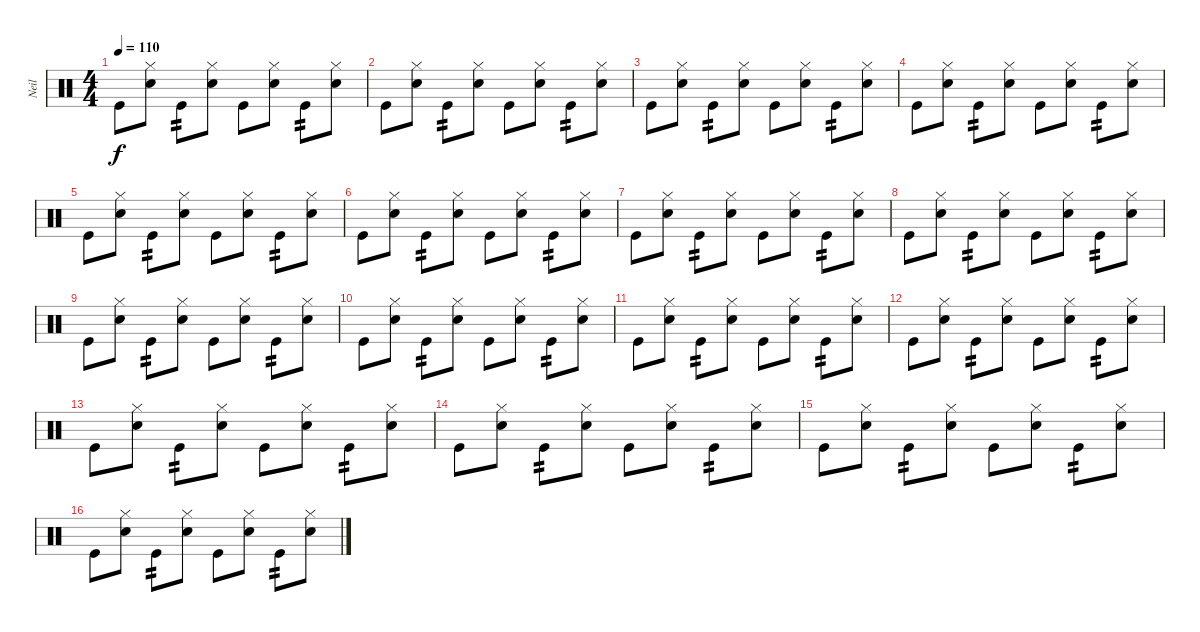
\track ("Neil" "Neil") {instrument percussion}
\staff {score}
\articulation defaults
\ts (4 4)
\tempo 110
\clef neutral
\ks c "Kick (hit)".8{dy f}
("Hi-Hat (closed)" "Snare (hit) 2").8 "Kick (hit)".8{tp 2} ("Hi-Hat (closed)" "Snare (hit) 2").8 "Kick (hit)".8 ("Hi-Hat (closed)" "Snare (hit) 2").8 "Kick (hit)".8{tp 2} ("Hi-Hat (closed)" "Snare (hit) 2").8 |
"Kick (hit)".8 ("Hi-Hat (closed)" "Snare (hit) 2").8 "Kick (hit)".8{tp 2} ("Hi-Hat (closed)" "Snare (hit) 2").8 "Kick (hit)".8 ("Hi-Hat (closed)" "Snare (hit) 2").8 "Kick (hit)".8{tp 2} ("Hi-Hat (closed)" "Snare (hit) 2").8 |
"Kick (hit)".8 ("Hi-Hat (closed)" "Snare (hit) 2").8 "Kick (hit)".8{tp 2} ("Hi-Hat (closed)" "Snare (hit) 2").8 "Kick (hit)".8 ("Hi-Hat (closed)" "Snare (hit) 2").8 "Kick (hit)".8{tp 2} ("Hi-Hat (closed)" "Snare (hit) 2").8 |
"Kick (hit)".8 ("Hi-Hat (closed)" "Snare (hit) 2").8 "Kick (hit)".8{tp 2} ("Hi-Hat (closed)" "Snare (hit) 2").8 "Kick (hit)".8 ("Hi-Hat (closed)" "Snare (hit) 2").8 "Kick (hit)".8{tp 2} ("Hi-Hat (closed)" "Snare (hit) 2").8 |
"Kick (hit)".8 ("Hi-Hat (closed)" "Snare (hit) 2").8 "Kick (hit)".8{tp 2} ("Hi-Hat (closed)" "Snare (hit) 2").8 "Kick (hit)".8 ("Hi-Hat (closed)" "Snare (hit) 2").8 "Kick (hit)".8{tp 2} ("Hi-Hat (closed)" "Snare (hit) 2").8 |
"Kick (hit)".8 ("Hi-Hat (closed)" "Snare (hit) 2").8 "Kick (hit)".8{tp 2} ("Hi-Hat (closed)" "Snare (hit) 2").8 "Kick (hit)".8 ("Hi-Hat (closed)" "Snare (hit) 2").8 "Kick (hit)".8{tp 2} ("Hi-Hat (closed)" "Snare (hit) 2").8 |
"Kick (hit)".8 ("Hi-Hat (closed)" "Snare (hit) 2").8 "Kick (hit)".8{tp 2} ("Hi-Hat (closed)" "Snare (hit) 2").8 "Kick (hit)".8 ("Hi-Hat (closed)" "Snare (hit) 2").8 "Kick (hit)".8{tp 2} ("Hi-Hat (closed)" "Snare (hit) 2").8 |
"Kick (hit)".8 ("Hi-Hat (closed)" "Snare (hit) 2").8 "Kick (hit)".8{tp 2} ("Hi-Hat (closed)" "Snare (hit) 2").8 "Kick (hit)".8 ("Hi-Hat (closed)" "Snare (hit) 2").8 "Kick (hit)".8{tp 2} ("Hi-Hat (closed)" "Snare (hit) 2").8 |
"Kick (hit)".8 ("Hi-Hat (closed)" "Snare (hit) 2").8 "Kick (hit)".8{tp 2} ("Hi-Hat (closed)" "Snare (hit) 2").8 "Kick (hit)".8 ("Hi-Hat (closed)" "Snare (hit) 2").8 "Kick (hit)".8{tp 2} ("Hi-Hat (closed)" "Snare (hit) 2").8 |
"Kick (hit)".8 ("Hi-Hat (closed)" "Snare (hit) 2").8 "Kick (hit)".8{tp 2} ("Hi-Hat (closed)" "Snare (hit) 2").8 "Kick (hit)".8 ("Hi-Hat (closed)" "Snare (hit) 2").8 "Kick (hit)".8{tp 2} ("Hi-Hat (closed)" "Snare (hit) 2").8 |
"Kick (hit)".8 ("Hi-Hat (closed)" "Snare (hit) 2").8 "Kick (hit)".8{tp 2} ("Hi-Hat (closed)" "Snare (hit) 2").8 "Kick (hit)".8 ("Hi-Hat (closed)" "Snare (hit) 2").8 "Kick (hit)".8{tp 2} ("Hi-Hat (closed)" "Snare (hit) 2").8 |
"Kick (hit)".8 ("Hi-Hat (closed)" "Snare (hit) 2").8 "Kick (hit)".8{tp 2} ("Hi-Hat (closed)" "Snare (hit) 2").8 "Kick (hit)".8 ("Hi-Hat (closed)" "Snare (hit) 2").8 "Kick (hit)".8{tp 2} ("Hi-Hat (closed)" "Snare (hit) 2").8 |
"Kick (hit)".8 ("Hi-Hat (closed)" "Snare (hit) 2").8 "Kick (hit)".8{tp 2} ("Hi-Hat (closed)" "Snare (hit) 2").8 "Kick (hit)".8 ("Hi-Hat (closed)" "Snare (hit) 2").8 "Kick (hit)".8{tp 2} ("Hi-Hat (closed)" "Snare (hit) 2").8 |
"Kick (hit)".8 ("Hi-Hat (closed)" "Snare (hit) 2").8 "Kick (hit)".8{tp 2} ("Hi-Hat (closed)" "Snare (hit) 2").8 "Kick (hit)".8 ("Hi-Hat (closed)" "Snare (hit) 2").8 "Kick (hit)".8{tp 2} ("Hi-Hat (closed)" "Snare (hit) 2").8 |
"Kick (hit)".8 ("Hi-Hat (closed)" "Snare (hit) 2").8 "Kick (hit)".8{tp 2} ("Hi-Hat (closed)" "Snare (hit) 2").8 "Kick (hit)".8 ("Hi-Hat (closed)" "Snare (hit) 2").8 "Kick (hit)".8{tp 2} ("Hi-Hat (closed)" "Snare (hit) 2").8 |
"Kick (hit)".8 ("Hi-Hat (closed)" "Snare (hit) 2").8 "Kick (hit)".8{tp 2} ("Hi-Hat (closed)" "Snare (hit) 2").8 "Kick (hit)".8 ("Hi-Hat (closed)" "Snare (hit) 2").8 "Kick (hit)".8{tp 2} ("Hi-Hat (closed)" "Snare (hit) 2").8
